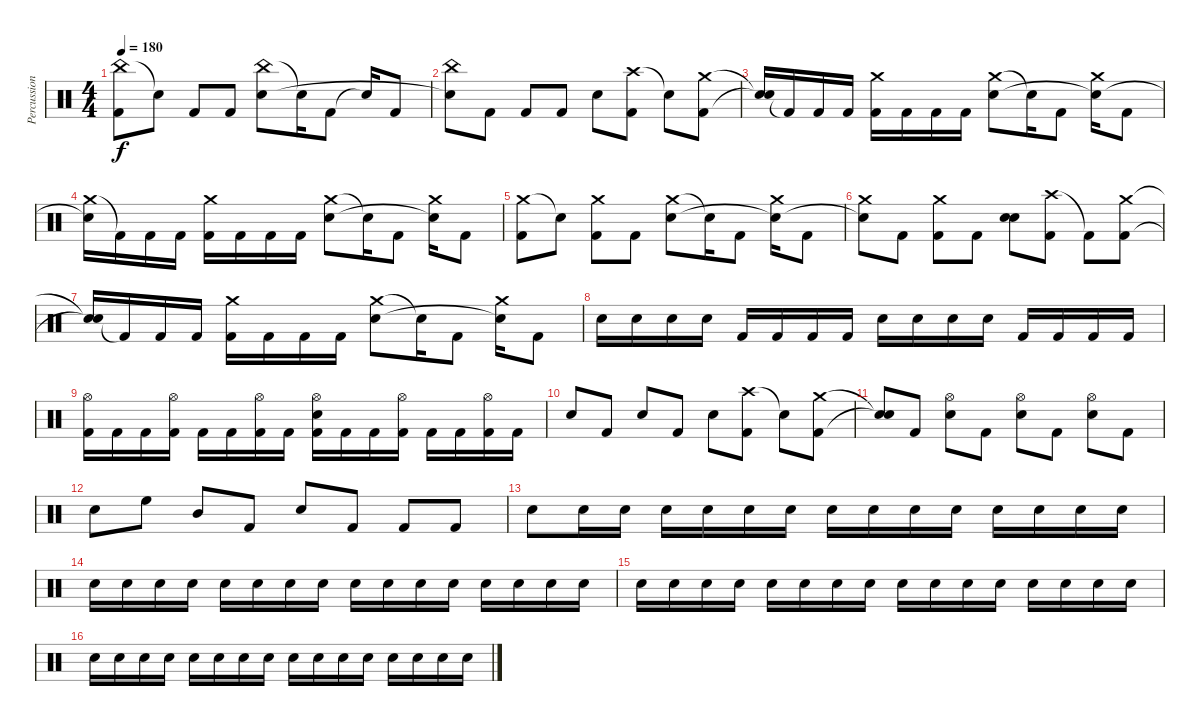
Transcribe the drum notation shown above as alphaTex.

\track ("Percussion" "Percussion") {instrument percussion}
\staff {score}
\articulation defaults
\ts (4 4)
\tempo 180
\clef neutral
\ks c
("China (hit)" "Kick (hit) 2").8{dy f} "Snare (hit)"{t}.8 "Kick (hit) 2".8 "Kick (hit) 2".8 ("China (hit)" "Snare (hit) 2").8 "Snare (hit)"{t}.16 "Kick (hit) 2".8 "Snare (hit)"{t}.16 "Kick (hit) 2".8 |
("China (hit)" "Snare (hit)"{t}).8 "Kick (hit) 2".8 "Kick (hit) 2".8 "Kick (hit) 2".8 "Snare (hit) 2".8 ("Crash high (hit)" "Kick (hit) 2").8 "Snare (hit)"{t}.8 ("Crash medium (hit)" "Kick (hit) 2").8 |
("Snare (hit)"{t} "Snare (hit)"{t}).16 "Kick (hit) 2"{t}.16 "Kick (hit) 2".16 "Kick (hit) 2".16 ("Crash medium (hit)" "Kick (hit) 2").16 "Kick (hit) 2".16 "Kick (hit) 2".16 "Kick (hit) 2".16 ("Crash medium (hit)" "Snare (hit) 2").8 "Snare (hit)"{t}.16 "Kick (hit) 2".8 ("Crash medium (hit)" "Snare (hit)"{t}).16 "Kick (hit) 2".8 |
("Crash medium (hit)" "Snare (hit)"{t}).16 "Kick (hit) 2"{t}.16 "Kick (hit) 2".16 "Kick (hit) 2".16 ("Crash medium (hit)" "Kick (hit) 2").16 "Kick (hit) 2".16 "Kick (hit) 2".16 "Kick (hit) 2".16 ("Crash medium (hit)" "Snare (hit) 2").8 "Snare (hit)"{t}.16 "Kick (hit) 2".8 ("Crash medium (hit)" "Snare (hit)"{t}).16 "Kick (hit) 2".8 |
("Crash medium (hit)" "Kick (hit) 2").8 "Snare (hit)"{t}.8 ("Crash medium (hit)" "Kick (hit) 2").8 "Kick (hit) 2".8 ("Crash medium (hit)" "Snare (hit) 2").8 "Snare (hit)"{t}.16 "Kick (hit) 2".8 ("Crash medium (hit)" "Snare (hit)"{t}).16 "Kick (hit) 2".8 |
("Crash medium (hit)" "Snare (hit)"{t}).8 "Kick (hit) 2".8 ("Crash medium (hit)" "Kick (hit) 2").8 "Kick (hit) 2".8 ("Snare (hit) 2" "Snare (hit) 2").8 ("Crash high (hit)" "Kick (hit) 2").8 "Kick (hit) 2"{t}.8 ("Crash medium (hit)" "Kick (hit) 2").8 |
("Snare (hit)"{t} "Snare (hit)"{t}).16 "Kick (hit) 2"{t}.16 "Kick (hit) 2".16 "Kick (hit) 2".16 ("Crash medium (hit)" "Kick (hit) 2").16 "Kick (hit) 2".16 "Kick (hit) 2".16 "Kick (hit) 2".16 ("Crash medium (hit)" "Snare (hit) 2").8 "Snare (hit)"{t}.16 "Kick (hit) 2".8 ("Crash medium (hit)" "Snare (hit)"{t}).16 "Kick (hit) 2".8 |
"Snare (hit) 2".16 "Snare (hit) 2".16 "Snare (hit) 2".16 "Snare (hit) 2".16 "Kick (hit) 2".16 "Kick (hit) 2".16 "Kick (hit) 2".16 "Kick (hit) 2".16 "Snare (hit) 2".16 "Snare (hit) 2".16 "Snare (hit) 2".16 "Snare (hit) 2".16 "Kick (hit) 2".16 "Kick (hit) 2".16 "Kick (hit) 2".16 "Kick (hit) 2".16 |
("Hi-Hat (open)" "Kick (hit) 2").16 "Kick (hit) 2".16 "Kick (hit) 2".16 ("Hi-Hat (open)" "Kick (hit) 2").16 "Kick (hit) 2".16 "Kick (hit) 2".16 ("Hi-Hat (open)" "Kick (hit) 2").16 "Kick (hit) 2".16 ("Hi-Hat (open)" "Snare (hit) 2" "Kick (hit) 2").16 "Kick (hit) 2".16 "Kick (hit) 2".16 ("Hi-Hat (open)" "Kick (hit) 2").16 "Kick (hit) 2".16 "Kick (hit) 2".16 ("Hi-Hat (open)" "Kick (hit) 2").16 "Kick (hit) 2".16 |
"Snare (hit) 2".8 "Kick (hit) 2".8 "Snare (hit) 2".8 "Kick (hit) 2".8 "Snare (hit) 2".8 ("Crash high (hit)" "Kick (hit) 2").8 "Snare (hit)"{t}.8 ("Crash medium (hit)" "Kick (hit) 2").8 |
("Snare (hit)"{t} "Snare (hit)"{t}).8 "Kick (hit) 2".8 ("Hi-Hat (open)" "Snare (hit) 2").8 "Kick (hit) 2".8 ("Hi-Hat (open)" "Snare (hit) 2").8 "Kick (hit) 2".8 ("Hi-Hat (open)" "Snare (hit) 2").8 "Kick (hit) 2".8 |
"Snare (hit) 2".8 "High Floor Tom (hit)".8 "Mid Tom (hit)".8 "Kick (hit) 2".8 "Snare (hit) 2".8 "Kick (hit) 2".8 "Kick (hit) 2".8 "Kick (hit) 2".8 |
"Snare (hit) 2".8{volume 5} "Snare (hit) 2".16{volume 5} "Snare (hit) 2".16{volume 5} "Snare (hit) 2".16{volume 5} "Snare (hit) 2".16{volume 5} "Snare (hit) 2".16{volume 5} "Snare (hit) 2".16{volume 5} "Snare (hit) 2".16{volume 5} "Snare (hit) 2".16{volume 5} "Snare (hit) 2".16{volume 5} "Snare (hit) 2".16{volume 5} "Snare (hit) 2".16{volume 5} "Snare (hit) 2".16{volume 5} "Snare (hit) 2".16{volume 5} "Snare (hit) 2".16{volume 5} |
"Snare (hit) 2".16 "Snare (hit) 2".16 "Snare (hit) 2".16 "Snare (hit) 2".16 "Snare (hit) 2".16 "Snare (hit) 2".16 "Snare (hit) 2".16 "Snare (hit) 2".16 "Snare (hit) 2".16 "Snare (hit) 2".16 "Snare (hit) 2".16 "Snare (hit) 2".16 "Snare (hit) 2".16 "Snare (hit) 2".16 "Snare (hit) 2".16 "Snare (hit) 2".16 |
"Snare (hit) 2".16{volume 13} "Snare (hit) 2".16{volume 5} "Snare (hit) 2".16 "Snare (hit) 2".16 "Snare (hit) 2".16 "Snare (hit) 2".16 "Snare (hit) 2".16 "Snare (hit) 2".16 "Snare (hit) 2".16 "Snare (hit) 2".16 "Snare (hit) 2".16 "Snare (hit) 2".16 "Snare (hit) 2".16 "Snare (hit) 2".16 "Snare (hit) 2".16 "Snare (hit) 2".16 |
"Snare (hit) 2".16 "Snare (hit) 2".16 "Snare (hit) 2".16 "Snare (hit) 2".16 "Snare (hit) 2".16 "Snare (hit) 2".16 "Snare (hit) 2".16 "Snare (hit) 2".16 "Snare (hit) 2".16 "Snare (hit) 2".16 "Snare (hit) 2".16 "Snare (hit) 2".16 "Snare (hit) 2".16 "Snare (hit) 2".16 "Snare (hit) 2".16 "Snare (hit) 2".16
